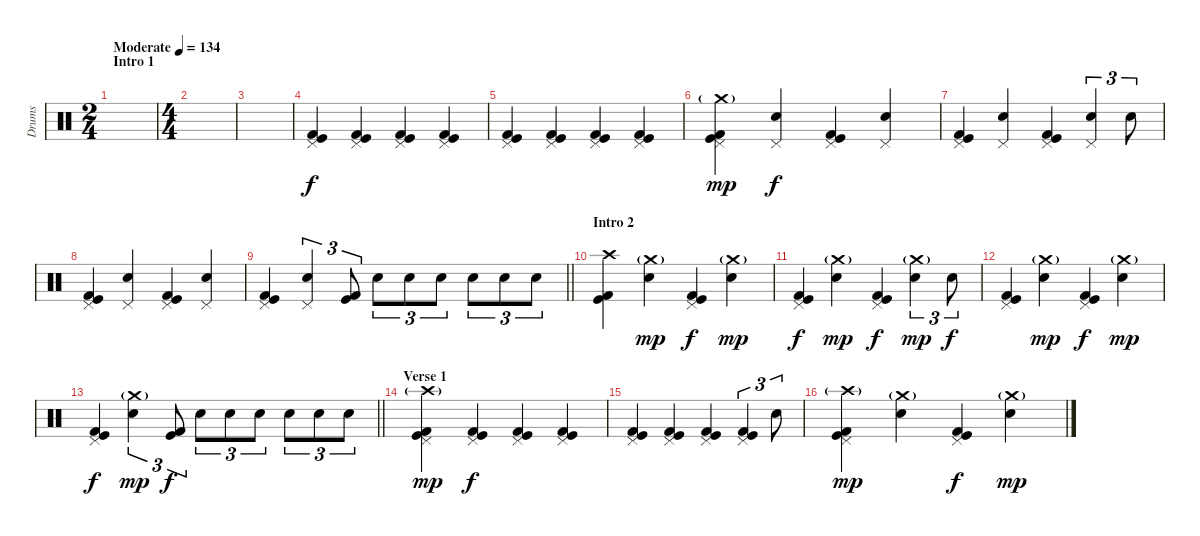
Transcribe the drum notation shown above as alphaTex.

\track ("Drums" "Drums") {instrument percussion}
\staff {score}
\articulation defaults
\ts (2 4)
\section ("" "Intro 1")
\tempo (134 "Moderate")
\clef neutral
\ks c
|
\ts (4 4)
|
|
("Pedal Hi-Hat (hit)" "Kick (hit)" "Kick (hit) 2").4 ("Pedal Hi-Hat (hit)" "Kick (hit)" "Kick (hit) 2").4 ("Pedal Hi-Hat (hit)" "Kick (hit)" "Kick (hit) 2").4 ("Pedal Hi-Hat (hit)" "Kick (hit)" "Kick (hit) 2").4 |
("Pedal Hi-Hat (hit)" "Kick (hit)" "Kick (hit) 2").4 ("Pedal Hi-Hat (hit)" "Kick (hit)" "Kick (hit) 2").4 ("Pedal Hi-Hat (hit)" "Kick (hit)" "Kick (hit) 2").4 ("Pedal Hi-Hat (hit)" "Kick (hit)" "Kick (hit) 2").4 |
("Pedal Hi-Hat (hit)" "Crash medium (hit)"{g} "Kick (hit)" "Kick (hit) 2").4{dy mp} ("Pedal Hi-Hat (hit)" "Electric Snare (hit)").4{dy f} ("Pedal Hi-Hat (hit)" "Kick (hit)" "Kick (hit) 2").4 ("Pedal Hi-Hat (hit)" "Electric Snare (hit)").4 |
("Pedal Hi-Hat (hit)" "Kick (hit)" "Kick (hit) 2").4 ("Pedal Hi-Hat (hit)" "Electric Snare (hit)").4 ("Pedal Hi-Hat (hit)" "Kick (hit)" "Kick (hit) 2").4 ("Pedal Hi-Hat (hit)" "Electric Snare (hit)").4{tu (3 2)} "Electric Snare (hit)".8{tu (3 2)} |
("Pedal Hi-Hat (hit)" "Kick (hit)" "Kick (hit) 2").4 ("Pedal Hi-Hat (hit)" "Electric Snare (hit)").4 ("Pedal Hi-Hat (hit)" "Kick (hit)" "Kick (hit) 2").4 ("Pedal Hi-Hat (hit)" "Electric Snare (hit)").4 |
\barLineRight lightlight
("Pedal Hi-Hat (hit)" "Kick (hit)" "Kick (hit) 2").4 ("Pedal Hi-Hat (hit)" "Electric Snare (hit)").4{tu (3 2)} ("Kick (hit)" "Kick (hit) 2").8{tu (3 2)} "Electric Snare (hit)".8{tu (3 2)} "Electric Snare (hit)".8{tu (3 2)} "Electric Snare (hit)".8{tu (3 2)} "Electric Snare (hit)".8{tu (3 2)} "Electric Snare (hit)".8{tu (3 2)} "Electric Snare (hit)".8{tu (3 2)} |
\section ("" "Intro 2")
("Crash high (hit)" "Kick (hit)" "Kick (hit) 2").4 ("Crash medium (hit)"{g} "Electric Snare (hit)").4{dy mp} ("Pedal Hi-Hat (hit)" "Kick (hit)" "Kick (hit) 2").4{dy f} ("Crash medium (hit)"{g} "Electric Snare (hit)").4{dy mp} |
("Pedal Hi-Hat (hit)" "Kick (hit)" "Kick (hit) 2").4{dy f} ("Crash medium (hit)"{g} "Electric Snare (hit)").4{dy mp} ("Pedal Hi-Hat (hit)" "Kick (hit)" "Kick (hit) 2").4{dy f} ("Crash medium (hit)"{g} "Electric Snare (hit)").4{tu (3 2) dy mp} "Electric Snare (hit)".8{tu (3 2) dy f} |
("Pedal Hi-Hat (hit)" "Kick (hit)" "Kick (hit) 2").4 ("Crash medium (hit)"{g} "Electric Snare (hit)").4{dy mp} ("Pedal Hi-Hat (hit)" "Kick (hit)" "Kick (hit) 2").4{dy f} ("Crash medium (hit)"{g} "Electric Snare (hit)").4{dy mp} |
\barLineRight lightlight
("Pedal Hi-Hat (hit)" "Kick (hit)" "Kick (hit) 2").4{dy f} ("Crash medium (hit)"{g} "Electric Snare (hit)").4{tu (3 2) dy mp} ("Kick (hit)" "Kick (hit) 2").8{tu (3 2) dy f} "Electric Snare (hit)".8{tu (3 2)} "Electric Snare (hit)".8{tu (3 2)} "Electric Snare (hit)".8{tu (3 2)} "Electric Snare (hit)".8{tu (3 2)} "Electric Snare (hit)".8{tu (3 2)} "Electric Snare (hit)".8{tu (3 2)} |
\section ("" "Verse 1")
("Pedal Hi-Hat (hit)" "Crash high (hit)"{g} "Kick (hit)" "Kick (hit) 2").4{dy mp} ("Pedal Hi-Hat (hit)" "Kick (hit)" "Kick (hit) 2").4{dy f} ("Pedal Hi-Hat (hit)" "Kick (hit)" "Kick (hit) 2").4 ("Pedal Hi-Hat (hit)" "Kick (hit)" "Kick (hit) 2").4 |
("Pedal Hi-Hat (hit)" "Kick (hit)" "Kick (hit) 2").4 ("Pedal Hi-Hat (hit)" "Kick (hit)" "Kick (hit) 2").4 ("Pedal Hi-Hat (hit)" "Kick (hit)" "Kick (hit) 2").4 ("Pedal Hi-Hat (hit)" "Kick (hit)" "Kick (hit) 2").4{tu (3 2)} "Electric Snare (hit)".8{tu (3 2)} |
("Pedal Hi-Hat (hit)" "Crash high (hit)"{g} "Kick (hit)" "Kick (hit) 2").4{dy mp} ("Crash medium (hit)"{g} "Electric Snare (hit)").4 ("Pedal Hi-Hat (hit)" "Kick (hit)" "Kick (hit) 2").4{dy f} ("Crash medium (hit)"{g} "Electric Snare (hit)").4{dy mp}
